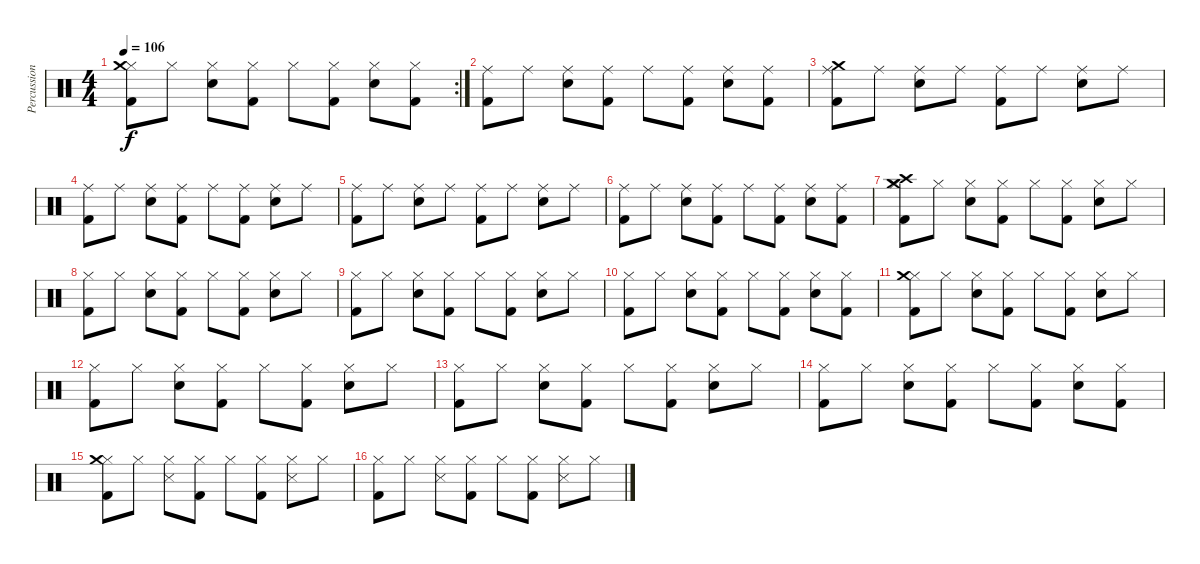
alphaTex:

\track ("Percussion" "Percussion") {instrument percussion}
\staff {score}
\articulation defaults
\rc 2
\ts (4 4)
\tempo 106
\clef neutral
\ks c
("Hi-Hat (closed)" "Kick (hit) 2" "Crash medium (hit)").8{dy f} "Hi-Hat (closed)".8 ("Hi-Hat (closed)" "Electric Snare (hit)").8 ("Hi-Hat (closed)" "Kick (hit) 2").8 "Hi-Hat (closed)".8 ("Hi-Hat (closed)" "Kick (hit) 2").8 ("Hi-Hat (closed)" "Electric Snare (hit)").8 ("Hi-Hat (closed)" "Kick (hit) 2").8 |
("Ride (middle)" "Kick (hit) 2").8 "Ride (middle)".8 ("Ride (middle)" "Electric Snare (hit)").8 ("Ride (middle)" "Kick (hit) 2").8 "Ride (middle)".8 ("Ride (middle)" "Kick (hit) 2").8 ("Ride (middle)" "Electric Snare (hit)").8 ("Ride (middle)" "Kick (hit) 2").8 |
("Ride (middle)" "Kick (hit) 2" "Crash medium (hit)").8 "Ride (middle)".8 ("Ride (middle)" "Electric Snare (hit)").8 "Ride (middle)".8 ("Ride (middle)" "Kick (hit) 2").8 "Ride (middle)".8 ("Ride (middle)" "Electric Snare (hit)").8 "Ride (middle)".8 |
("Ride (middle)" "Kick (hit) 2").8 "Ride (middle)".8 ("Ride (middle)" "Electric Snare (hit)").8 ("Ride (middle)" "Kick (hit) 2").8 "Ride (middle)".8 ("Ride (middle)" "Kick (hit) 2").8 ("Ride (middle)" "Electric Snare (hit)").8 "Ride (middle)".8 |
("Ride (middle)" "Kick (hit) 2").8 "Ride (middle)".8 ("Ride (middle)" "Electric Snare (hit)").8 "Ride (middle)".8 ("Ride (middle)" "Kick (hit) 2").8 "Ride (middle)".8 ("Ride (middle)" "Electric Snare (hit)").8 "Ride (middle)".8 |
("Ride (middle)" "Kick (hit) 2").8 "Ride (middle)".8 ("Ride (middle)" "Electric Snare (hit)").8 ("Ride (middle)" "Kick (hit) 2").8 "Ride (middle)".8 ("Ride (middle)" "Kick (hit) 2").8 ("Ride (middle)" "Electric Snare (hit)").8 ("Ride (middle)" "Kick (hit) 2").8 |
("Hi-Hat (closed)" "Kick (hit) 2" "Crash medium (hit)" "Crash high (hit)").8 "Hi-Hat (closed)".8 ("Hi-Hat (closed)" "Electric Snare (hit)").8 ("Hi-Hat (closed)" "Kick (hit) 2").8 "Hi-Hat (closed)".8 ("Hi-Hat (closed)" "Kick (hit) 2").8 ("Hi-Hat (closed)" "Electric Snare (hit)").8 "Hi-Hat (closed)".8 |
("Hi-Hat (closed)" "Kick (hit) 2").8 "Hi-Hat (closed)".8 ("Hi-Hat (closed)" "Electric Snare (hit)").8 ("Hi-Hat (closed)" "Kick (hit) 2").8 "Hi-Hat (closed)".8 ("Hi-Hat (closed)" "Kick (hit) 2").8 ("Hi-Hat (closed)" "Electric Snare (hit)").8 "Hi-Hat (closed)".8 |
("Hi-Hat (closed)" "Kick (hit) 2").8 "Hi-Hat (closed)".8 ("Hi-Hat (closed)" "Electric Snare (hit)").8 ("Hi-Hat (closed)" "Kick (hit) 2").8 "Hi-Hat (closed)".8 ("Hi-Hat (closed)" "Kick (hit) 2").8 ("Hi-Hat (closed)" "Electric Snare (hit)").8 "Hi-Hat (closed)".8 |
("Hi-Hat (closed)" "Kick (hit) 2").8 "Hi-Hat (closed)".8 ("Hi-Hat (closed)" "Electric Snare (hit)").8 ("Hi-Hat (closed)" "Kick (hit) 2").8 "Hi-Hat (closed)".8 ("Hi-Hat (closed)" "Kick (hit) 2").8 ("Hi-Hat (closed)" "Electric Snare (hit)").8 ("Hi-Hat (closed)" "Kick (hit) 2").8 |
("Hi-Hat (closed)" "Kick (hit) 2" "Crash medium (hit)").8 "Hi-Hat (closed)".8 ("Hi-Hat (closed)" "Electric Snare (hit)").8 ("Hi-Hat (closed)" "Kick (hit) 2").8 "Hi-Hat (closed)".8 ("Hi-Hat (closed)" "Kick (hit) 2").8 ("Hi-Hat (closed)" "Electric Snare (hit)").8 "Hi-Hat (closed)".8 |
("Hi-Hat (closed)" "Kick (hit) 2").8 "Hi-Hat (closed)".8 ("Hi-Hat (closed)" "Electric Snare (hit)").8 ("Hi-Hat (closed)" "Kick (hit) 2").8 "Hi-Hat (closed)".8 ("Hi-Hat (closed)" "Kick (hit) 2").8 ("Hi-Hat (closed)" "Electric Snare (hit)").8 "Hi-Hat (closed)".8 |
("Hi-Hat (closed)" "Kick (hit) 2").8 "Hi-Hat (closed)".8 ("Hi-Hat (closed)" "Electric Snare (hit)").8 ("Hi-Hat (closed)" "Kick (hit) 2").8 "Hi-Hat (closed)".8 ("Hi-Hat (closed)" "Kick (hit) 2").8 ("Hi-Hat (closed)" "Electric Snare (hit)").8 "Hi-Hat (closed)".8 |
("Hi-Hat (closed)" "Kick (hit) 2").8 "Hi-Hat (closed)".8 ("Hi-Hat (closed)" "Electric Snare (hit)").8 ("Hi-Hat (closed)" "Kick (hit) 2").8 "Hi-Hat (closed)".8 ("Hi-Hat (closed)" "Kick (hit) 2").8 ("Hi-Hat (closed)" "Electric Snare (hit)").8 ("Hi-Hat (closed)" "Kick (hit) 2").8 |
("Hi-Hat (closed)" "Kick (hit) 2" "Crash medium (hit)").8 "Hi-Hat (closed)".8 ("Hi-Hat (closed)" "Snare (side stick) 3").8 ("Hi-Hat (closed)" "Kick (hit) 2").8 "Hi-Hat (closed)".8 ("Hi-Hat (closed)" "Kick (hit) 2").8 ("Hi-Hat (closed)" "Snare (side stick) 3").8 "Hi-Hat (closed)".8 |
("Hi-Hat (closed)" "Kick (hit) 2").8 "Hi-Hat (closed)".8 ("Hi-Hat (closed)" "Snare (side stick) 3").8 ("Hi-Hat (closed)" "Kick (hit) 2").8 "Hi-Hat (closed)".8 ("Hi-Hat (closed)" "Kick (hit) 2").8 ("Hi-Hat (closed)" "Snare (side stick) 3").8 "Hi-Hat (closed)".8
